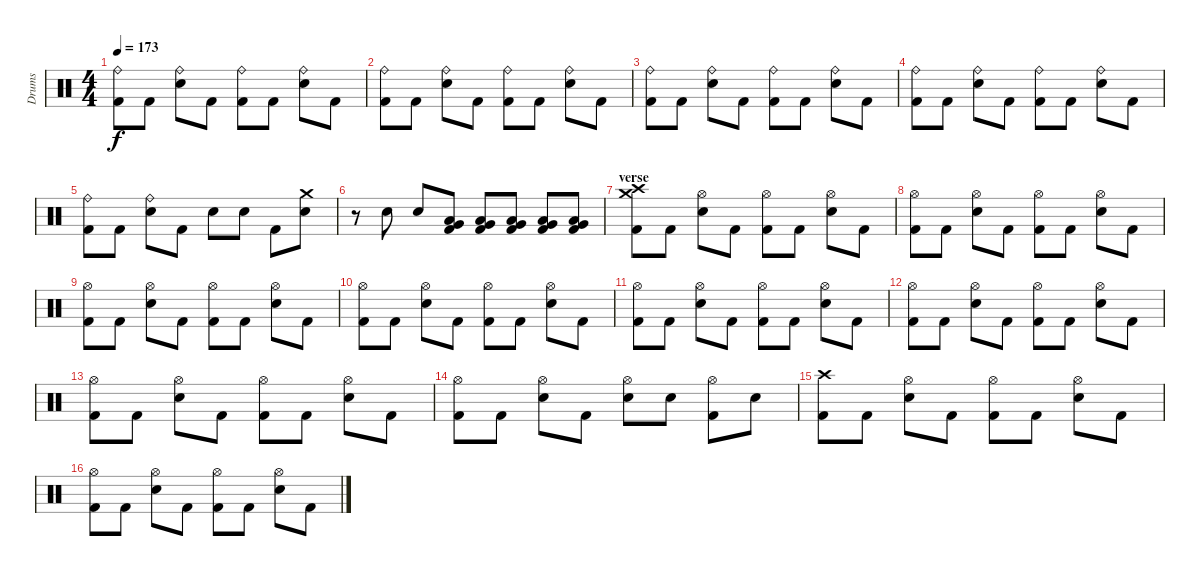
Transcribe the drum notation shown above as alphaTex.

\track ("Drums" "Drums") {instrument percussion}
\staff {score}
\articulation defaults
\ts (4 4)
\tempo 173
\clef neutral
\ks c
("Ride (bell)" "Kick (hit) 2").8{dy f} "Kick (hit) 2".8 ("Ride (bell)" "Snare (hit) 2").8 "Kick (hit) 2".8 ("Ride (bell)" "Kick (hit) 2").8 "Kick (hit) 2".8 ("Ride (bell)" "Snare (hit) 2").8 "Kick (hit) 2".8 |
("Ride (bell)" "Kick (hit) 2").8 "Kick (hit) 2".8 ("Ride (bell)" "Snare (hit) 2").8 "Kick (hit) 2".8 ("Ride (bell)" "Kick (hit) 2").8 "Kick (hit) 2".8 ("Ride (bell)" "Snare (hit) 2").8 "Kick (hit) 2".8 |
("Ride (bell)" "Kick (hit) 2").8 "Kick (hit) 2".8 ("Ride (bell)" "Snare (hit) 2").8 "Kick (hit) 2".8 ("Ride (bell)" "Kick (hit) 2").8 "Kick (hit) 2".8 ("Ride (bell)" "Snare (hit) 2").8 "Kick (hit) 2".8 |
("Ride (bell)" "Kick (hit) 2").8 "Kick (hit) 2".8 ("Ride (bell)" "Snare (hit) 2").8 "Kick (hit) 2".8 ("Ride (bell)" "Kick (hit) 2").8 "Kick (hit) 2".8 ("Ride (bell)" "Snare (hit) 2").8 "Kick (hit) 2".8 |
("Ride (bell)" "Kick (hit) 2").8 "Kick (hit) 2".8 ("Ride (bell)" "Snare (hit) 2").8 "Kick (hit) 2".8 "Snare (hit) 2".8 "Snare (hit) 2".8 "Kick (hit) 2".8 ("Crash medium (hit)" "Snare (hit) 2").8 |
r.8 "Snare (hit) 2".8 "Snare (hit) 2".8 ("Very Low Tom (hit)" "Low Floor Tom (hit)" "Kick (hit) 2").8 ("Very Low Tom (hit)" "Low Floor Tom (hit)" "Kick (hit) 2").8 ("Very Low Tom (hit)" "Low Floor Tom (hit)" "Kick (hit) 2").8 ("Very Low Tom (hit)" "Low Floor Tom (hit)" "Kick (hit) 2").8 ("Very Low Tom (hit)" "Low Floor Tom (hit)" "Kick (hit) 2").8 |
\section ("" "verse")
("Crash high (hit)" "Crash medium (hit)" "Kick (hit) 2").8 "Kick (hit) 2".8 ("Hi-Hat (open)" "Snare (hit) 2").8 "Kick (hit) 2".8 ("Hi-Hat (open)" "Kick (hit) 2").8 "Kick (hit) 2".8 ("Hi-Hat (open)" "Snare (hit) 2").8 "Kick (hit) 2".8 |
("Hi-Hat (open)" "Kick (hit) 2").8 "Kick (hit) 2".8 ("Hi-Hat (open)" "Snare (hit) 2").8 "Kick (hit) 2".8 ("Hi-Hat (open)" "Kick (hit) 2").8 "Kick (hit) 2".8 ("Hi-Hat (open)" "Snare (hit) 2").8 "Kick (hit) 2".8 |
("Hi-Hat (open)" "Kick (hit) 2").8 "Kick (hit) 2".8 ("Hi-Hat (open)" "Snare (hit) 2").8 "Kick (hit) 2".8 ("Hi-Hat (open)" "Kick (hit) 2").8 "Kick (hit) 2".8 ("Hi-Hat (open)" "Snare (hit) 2").8 "Kick (hit) 2".8 |
("Hi-Hat (open)" "Kick (hit) 2").8 "Kick (hit) 2".8 ("Hi-Hat (open)" "Snare (hit) 2").8 "Kick (hit) 2".8 ("Hi-Hat (open)" "Kick (hit) 2").8 "Kick (hit) 2".8 ("Hi-Hat (open)" "Snare (hit) 2").8 "Kick (hit) 2".8 |
("Hi-Hat (open)" "Kick (hit) 2").8 "Kick (hit) 2".8 ("Hi-Hat (open)" "Snare (hit) 2").8 "Kick (hit) 2".8 ("Hi-Hat (open)" "Kick (hit) 2").8 "Kick (hit) 2".8 ("Hi-Hat (open)" "Snare (hit) 2").8 "Kick (hit) 2".8 |
("Hi-Hat (open)" "Kick (hit) 2").8 "Kick (hit) 2".8 ("Hi-Hat (open)" "Snare (hit) 2").8 "Kick (hit) 2".8 ("Hi-Hat (open)" "Kick (hit) 2").8 "Kick (hit) 2".8 ("Hi-Hat (open)" "Snare (hit) 2").8 "Kick (hit) 2".8 |
("Hi-Hat (open)" "Kick (hit) 2").8 "Kick (hit) 2".8 ("Hi-Hat (open)" "Snare (hit) 2").8 "Kick (hit) 2".8 ("Hi-Hat (open)" "Kick (hit) 2").8 "Kick (hit) 2".8 ("Hi-Hat (open)" "Snare (hit) 2").8 "Kick (hit) 2".8 |
("Hi-Hat (open)" "Kick (hit) 2").8 "Kick (hit) 2".8 ("Hi-Hat (open)" "Snare (hit) 2").8 "Kick (hit) 2".8 ("Hi-Hat (open)" "Snare (hit) 2").8 "Snare (hit) 2".8 ("Hi-Hat (open)" "Kick (hit) 2").8 "Snare (hit) 2".8 |
("Crash high (hit)" "Kick (hit) 2").8 "Kick (hit) 2".8 ("Hi-Hat (open)" "Snare (hit) 2").8 "Kick (hit) 2".8 ("Hi-Hat (open)" "Kick (hit) 2").8 "Kick (hit) 2".8 ("Hi-Hat (open)" "Snare (hit) 2").8 "Kick (hit) 2".8 |
("Hi-Hat (open)" "Kick (hit) 2").8 "Kick (hit) 2".8 ("Hi-Hat (open)" "Snare (hit) 2").8 "Kick (hit) 2".8 ("Hi-Hat (open)" "Kick (hit) 2").8 "Kick (hit) 2".8 ("Hi-Hat (open)" "Snare (hit) 2").8 "Kick (hit) 2".8
